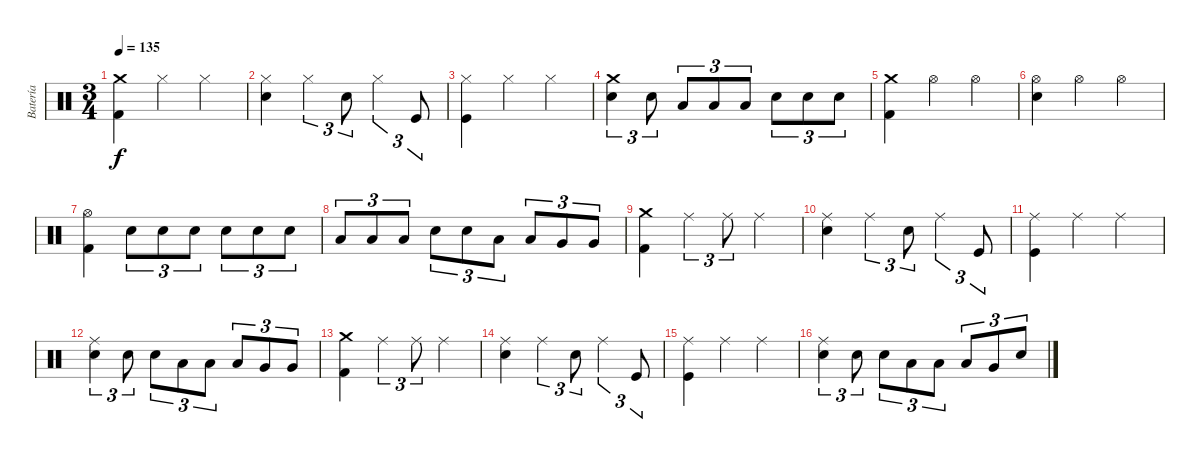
\track ("Batería" "Batería") {instrument percussion}
\staff {score}
\articulation defaults
\ts (3 4)
\tempo 135
\clef neutral
\ks c
("Crash medium (hit)" "Kick (hit) 2").4{dy f} "Hi-Hat (closed)".4 "Hi-Hat (closed)".4 |
("Hi-Hat (closed)" "Snare (hit) 2").4 "Hi-Hat (closed)".4{tu (3 2)} "Snare (hit) 2".8{tu (3 2)} "Hi-Hat (closed)".4{tu (3 2)} "Kick (hit)".8{tu (3 2)} |
("Hi-Hat (closed)" "Kick (hit)").4 "Hi-Hat (closed)".4 "Hi-Hat (closed)".4 |
("Crash medium (hit)" "Snare (hit) 2").4{tu (3 2)} "Snare (hit) 2".8{tu (3 2)} "Low Tom (hit)".8{tu (3 2)} "Low Tom (hit)".8{tu (3 2)} "Low Tom (hit)".8{tu (3 2)} "Snare (hit) 2".8{tu (3 2)} "Snare (hit) 2".8{tu (3 2)} "Snare (hit) 2".8{tu (3 2)} |
("Crash medium (hit)" "Kick (hit) 2").4 "Hi-Hat (open)".4 "Hi-Hat (open)".4 |
("Hi-Hat (open)" "Snare (hit) 2").4 "Hi-Hat (open)".4 "Hi-Hat (open)".4 |
("Hi-Hat (open)" "Kick (hit) 2").4 "Snare (hit) 2".8{tu (3 2)} "Snare (hit) 2".8{tu (3 2)} "Snare (hit) 2".8{tu (3 2)} "Snare (hit) 2".8{tu (3 2)} "Snare (hit) 2".8{tu (3 2)} "Snare (hit) 2".8{tu (3 2)} |
"Low Tom (hit)".8{tu (3 2)} "Low Tom (hit)".8{tu (3 2)} "Low Tom (hit)".8{tu (3 2)} "Snare (hit) 2".8{tu (3 2)} "Snare (hit) 2".8{tu (3 2)} "Low Tom (hit)".8{tu (3 2)} "Low Tom (hit)".8{tu (3 2)} "Very Low Tom (hit)".8{tu (3 2)} "Very Low Tom (hit)".8{tu (3 2)} |
("Crash medium (hit)" "Kick (hit) 2").4 "Ride (middle)".4{tu (3 2)} "Ride (middle)".8{tu (3 2)} "Ride (middle)".4 |
("Ride (middle)" "Snare (hit) 2").4 "Ride (middle)".4{tu (3 2)} "Snare (hit) 2".8{tu (3 2)} "Ride (middle)".4{tu (3 2)} "Kick (hit)".8{tu (3 2)} |
("Ride (middle)" "Kick (hit)").4 "Ride (middle)".4 "Ride (middle)".4 |
("Ride (middle)" "Snare (hit) 2").4{tu (3 2)} "Snare (hit) 2".8{tu (3 2)} "Snare (hit) 2".8{tu (3 2)} "Low Tom (hit)".8{tu (3 2)} "Low Tom (hit)".8{tu (3 2)} "Low Tom (hit)".8{tu (3 2)} "Very Low Tom (hit)".8{tu (3 2)} "Very Low Tom (hit)".8{tu (3 2)} |
("Crash medium (hit)" "Kick (hit) 2").4 "Ride (middle)".4{tu (3 2)} "Ride (middle)".8{tu (3 2)} "Ride (middle)".4 |
("Ride (middle)" "Snare (hit) 2").4 "Ride (middle)".4{tu (3 2)} "Snare (hit) 2".8{tu (3 2)} "Ride (middle)".4{tu (3 2)} "Kick (hit)".8{tu (3 2)} |
("Ride (middle)" "Kick (hit)").4 "Ride (middle)".4 "Ride (middle)".4 |
("Ride (middle)" "Snare (hit) 2").4{tu (3 2)} "Snare (hit) 2".8{tu (3 2)} "Snare (hit) 2".8{tu (3 2)} "Low Tom (hit)".8{tu (3 2)} "Low Tom (hit)".8{tu (3 2)} "Low Tom (hit)".8{tu (3 2)} "Very Low Tom (hit)".8{tu (3 2)} "Snare (hit) 2".8{tu (3 2)}
